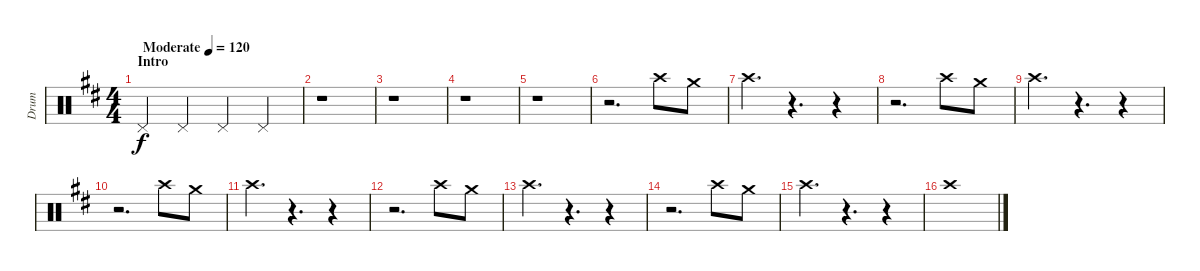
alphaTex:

\track ("Drum" "Drum") {instrument percussion}
\staff {score}
\articulation defaults
\ts (4 4)
\section ("" "Intro")
\tempo (120 "Moderate")
\clef neutral
\ks d "Pedal Hi-Hat (hit)".4{dy f} "Pedal Hi-Hat (hit)".4 "Pedal Hi-Hat (hit)".4 "Pedal Hi-Hat (hit)".4
|
r.1 |
r.1 |
r.1 |
r.1 |
r.2{d} "Crash high (hit)".8 "Crash medium (hit)".8 |
"Crash high (hit)".4{d} r.4{d} r.4 |
r.2{d} "Crash high (hit)".8 "Crash medium (hit)".8 |
"Crash high (hit)".4{d} r.4{d} r.4 |
r.2{d} "Crash high (hit)".8 "Crash medium (hit)".8 |
"Crash high (hit)".4{d} r.4{d} r.4 |
r.2{d} "Crash high (hit)".8 "Crash medium (hit)".8 |
"Crash high (hit)".4{d} r.4{d} r.4 |
r.2{d} "Crash high (hit)".8 "Crash medium (hit)".8 |
"Crash high (hit)".4{d} r.4{d} r.4 |
"Crash high (hit)".1
